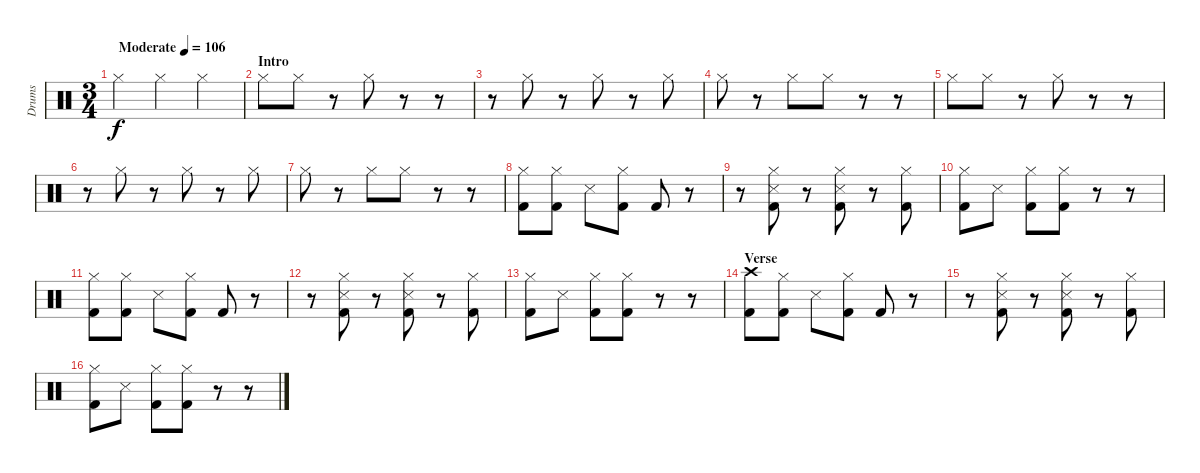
\track ("Drums" "Drums") {instrument percussion}
\staff {score}
\articulation defaults
\ts (3 4)
\tempo (106 "Moderate")
\clef neutral
\ks c "Hi-Hat (closed)".4{dy f} "Hi-Hat (closed)".4 "Hi-Hat (closed)".4
|
\section ("" "Intro")
"Hi-Hat (closed)".8 "Hi-Hat (closed)".8 r.8 "Hi-Hat (closed)".8 r.8 r.8 |
r.8 "Hi-Hat (closed)".8 r.8 "Hi-Hat (closed)".8 r.8 "Hi-Hat (closed)".8 |
"Hi-Hat (closed)".8 r.8 "Hi-Hat (closed)".8 "Hi-Hat (closed)".8 r.8 r.8 |
"Hi-Hat (closed)".8 "Hi-Hat (closed)".8 r.8 "Hi-Hat (closed)".8 r.8 r.8 |
r.8 "Hi-Hat (closed)".8 r.8 "Hi-Hat (closed)".8 r.8 "Hi-Hat (closed)".8 |
"Hi-Hat (closed)".8 r.8 "Hi-Hat (closed)".8 "Hi-Hat (closed)".8 r.8 r.8 |
("Hi-Hat (closed)" "Kick (hit) 2").8 ("Hi-Hat (closed)" "Kick (hit) 2").8 "Snare (side stick) 3".8 ("Hi-Hat (closed)" "Kick (hit) 2").8 "Kick (hit) 2".8 r.8 |
r.8 ("Hi-Hat (closed)" "Snare (side stick) 3" "Kick (hit) 2").8 r.8 ("Hi-Hat (closed)" "Snare (side stick) 3" "Kick (hit) 2").8 r.8 ("Hi-Hat (closed)" "Kick (hit) 2").8 |
("Hi-Hat (closed)" "Kick (hit) 2").8 "Snare (side stick) 3".8 ("Hi-Hat (closed)" "Kick (hit) 2").8 ("Hi-Hat (closed)" "Kick (hit) 2").8 r.8 r.8 |
("Hi-Hat (closed)" "Kick (hit) 2").8 ("Hi-Hat (closed)" "Kick (hit) 2").8 "Snare (side stick) 3".8 ("Hi-Hat (closed)" "Kick (hit) 2").8 "Kick (hit) 2".8 r.8 |
r.8 ("Hi-Hat (closed)" "Snare (side stick) 3" "Kick (hit) 2").8 r.8 ("Hi-Hat (closed)" "Snare (side stick) 3" "Kick (hit) 2").8 r.8 ("Hi-Hat (closed)" "Kick (hit) 2").8 |
("Hi-Hat (closed)" "Kick (hit) 2").8 "Snare (side stick) 3".8 ("Hi-Hat (closed)" "Kick (hit) 2").8 ("Hi-Hat (closed)" "Kick (hit) 2").8 r.8 r.8 |
\section ("" "Verse")
("Crash high (hit)" "Kick (hit) 2").8 ("Hi-Hat (closed)" "Kick (hit) 2").8 "Snare (side stick) 3".8 ("Hi-Hat (closed)" "Kick (hit) 2").8 "Kick (hit) 2".8 r.8 |
r.8 ("Hi-Hat (closed)" "Snare (side stick) 3" "Kick (hit) 2").8 r.8 ("Hi-Hat (closed)" "Snare (side stick) 3" "Kick (hit) 2").8 r.8 ("Hi-Hat (closed)" "Kick (hit) 2").8 |
("Hi-Hat (closed)" "Kick (hit) 2").8 "Snare (side stick) 3".8 ("Hi-Hat (closed)" "Kick (hit) 2").8 ("Hi-Hat (closed)" "Kick (hit) 2").8 r.8 r.8
